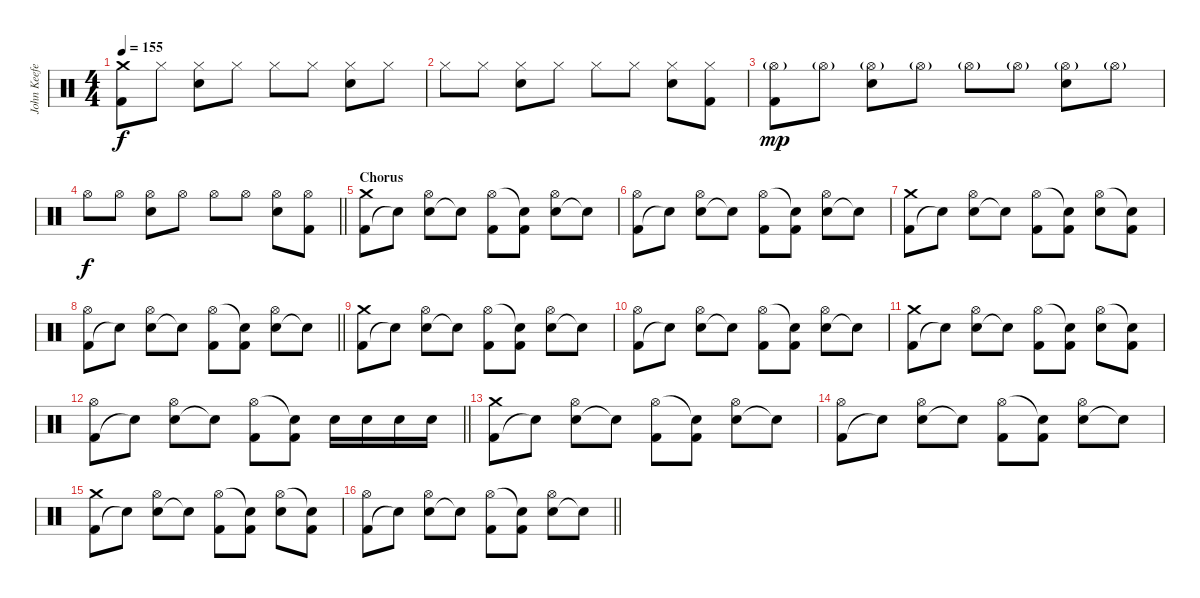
\track ("John Keefe (Percussion)" "John Keefe") {instrument percussion}
\staff {score}
\articulation defaults
\ts (4 4)
\tempo 155
\clef neutral
\ks c
("Kick (hit) 2" "Crash medium (hit)").8{dy f} "Hi-Hat (closed)".8 ("Electric Snare (hit)" "Hi-Hat (closed)").8 "Hi-Hat (closed)".8 "Hi-Hat (closed)".8 "Hi-Hat (closed)".8 ("Electric Snare (hit)" "Hi-Hat (closed)").8 "Hi-Hat (closed)".8 |
"Hi-Hat (closed)".8 "Hi-Hat (closed)".8 ("Electric Snare (hit)" "Hi-Hat (closed)").8 "Hi-Hat (closed)".8 "Hi-Hat (closed)".8 "Hi-Hat (closed)".8 ("Electric Snare (hit)" "Hi-Hat (closed)").8 ("Kick (hit) 2" "Hi-Hat (closed)").8 |
("Kick (hit) 2" "Hi-Hat (open)"{g}).8{dy mp} "Hi-Hat (open)"{g}.8 ("Electric Snare (hit)" "Hi-Hat (open)"{g}).8 "Hi-Hat (open)"{g}.8 "Hi-Hat (open)"{g}.8 "Hi-Hat (open)"{g}.8 ("Electric Snare (hit)" "Hi-Hat (open)"{g}).8 "Hi-Hat (open)"{g}.8 |
\barLineRight lightlight "Hi-Hat (open)".8{dy f} "Hi-Hat (open)".8
("Electric Snare (hit)" "Hi-Hat (open)").8 "Hi-Hat (open)".8 "Hi-Hat (open)".8 "Hi-Hat (open)".8 ("Electric Snare (hit)" "Hi-Hat (open)").8 ("Kick (hit) 2" "Hi-Hat (open)").8 |
\section ("" "Chorus")
("Kick (hit) 2" "Crash medium (hit)").8 "Snare (hit)"{t}.8 ("Electric Snare (hit)" "Hi-Hat (open)").8 "Snare (hit)"{t}.8 ("Kick (hit) 2" "Hi-Hat (open)").8 ("Kick (hit) 2" "Snare (hit)"{t}).8 ("Electric Snare (hit)" "Hi-Hat (open)").8 "Snare (hit)"{t}.8 |
("Kick (hit) 2" "Hi-Hat (open)").8 "Snare (hit)"{t}.8 ("Electric Snare (hit)" "Hi-Hat (open)").8 "Snare (hit)"{t}.8 ("Kick (hit) 2" "Hi-Hat (open)").8 ("Kick (hit) 2" "Snare (hit)"{t}).8 ("Electric Snare (hit)" "Hi-Hat (open)").8 "Snare (hit)"{t}.8 |
("Kick (hit) 2" "Crash medium (hit)").8 "Snare (hit)"{t}.8 ("Electric Snare (hit)" "Hi-Hat (open)").8 "Snare (hit)"{t}.8 ("Kick (hit) 2" "Hi-Hat (open)").8 ("Kick (hit) 2" "Snare (hit)"{t}).8 ("Electric Snare (hit)" "Hi-Hat (open)").8 ("Kick (hit) 2" "Snare (hit)"{t}).8 |
\barLineRight lightlight
("Kick (hit) 2" "Hi-Hat (open)").8 "Snare (hit)"{t}.8 ("Electric Snare (hit)" "Hi-Hat (open)").8 "Snare (hit)"{t}.8 ("Kick (hit) 2" "Hi-Hat (open)").8 ("Kick (hit) 2" "Snare (hit)"{t}).8 ("Electric Snare (hit)" "Hi-Hat (open)").8 "Snare (hit)"{t}.8 |
("Kick (hit) 2" "Crash medium (hit)").8 "Snare (hit)"{t}.8 ("Electric Snare (hit)" "Hi-Hat (open)").8 "Snare (hit)"{t}.8 ("Kick (hit) 2" "Hi-Hat (open)").8 ("Kick (hit) 2" "Snare (hit)"{t}).8 ("Electric Snare (hit)" "Hi-Hat (open)").8 "Snare (hit)"{t}.8 |
("Kick (hit) 2" "Hi-Hat (open)").8 "Snare (hit)"{t}.8 ("Electric Snare (hit)" "Hi-Hat (open)").8 "Snare (hit)"{t}.8 ("Kick (hit) 2" "Hi-Hat (open)").8 ("Kick (hit) 2" "Snare (hit)"{t}).8 ("Electric Snare (hit)" "Hi-Hat (open)").8 "Snare (hit)"{t}.8 |
("Kick (hit) 2" "Crash medium (hit)").8 "Snare (hit)"{t}.8 ("Electric Snare (hit)" "Hi-Hat (open)").8 "Snare (hit)"{t}.8 ("Kick (hit) 2" "Hi-Hat (open)").8 ("Kick (hit) 2" "Snare (hit)"{t}).8 ("Electric Snare (hit)" "Hi-Hat (open)").8 ("Kick (hit) 2" "Snare (hit)"{t}).8 |
\barLineRight lightlight
("Kick (hit) 2" "Hi-Hat (open)").8 "Snare (hit)"{t}.8 ("Electric Snare (hit)" "Hi-Hat (open)").8 "Snare (hit)"{t}.8 ("Kick (hit) 2" "Hi-Hat (open)").8 ("Kick (hit) 2" "Snare (hit)"{t}).8 "Electric Snare (hit)".16 "Electric Snare (hit)".16 "Electric Snare (hit)".16 "Electric Snare (hit)".16 |
("Kick (hit) 2" "Crash medium (hit)").8 "Snare (hit)"{t}.8 ("Electric Snare (hit)" "Hi-Hat (open)").8 "Snare (hit)"{t}.8 ("Kick (hit) 2" "Hi-Hat (open)").8 ("Kick (hit) 2" "Snare (hit)"{t}).8 ("Electric Snare (hit)" "Hi-Hat (open)").8 "Snare (hit)"{t}.8 |
("Kick (hit) 2" "Hi-Hat (open)").8 "Snare (hit)"{t}.8 ("Electric Snare (hit)" "Hi-Hat (open)").8 "Snare (hit)"{t}.8 ("Kick (hit) 2" "Hi-Hat (open)").8 ("Kick (hit) 2" "Snare (hit)"{t}).8 ("Electric Snare (hit)" "Hi-Hat (open)").8 "Snare (hit)"{t}.8 |
("Kick (hit) 2" "Crash medium (hit)").8 "Snare (hit)"{t}.8 ("Electric Snare (hit)" "Hi-Hat (open)").8 "Snare (hit)"{t}.8 ("Kick (hit) 2" "Hi-Hat (open)").8 ("Kick (hit) 2" "Snare (hit)"{t}).8 ("Electric Snare (hit)" "Hi-Hat (open)").8 ("Kick (hit) 2" "Snare (hit)"{t}).8 |
\barLineRight lightlight
("Kick (hit) 2" "Hi-Hat (open)").8 "Snare (hit)"{t}.8 ("Electric Snare (hit)" "Hi-Hat (open)").8 "Snare (hit)"{t}.8 ("Kick (hit) 2" "Hi-Hat (open)").8 ("Kick (hit) 2" "Snare (hit)"{t}).8 ("Electric Snare (hit)" "Hi-Hat (open)").8 "Snare (hit)"{t}.8
